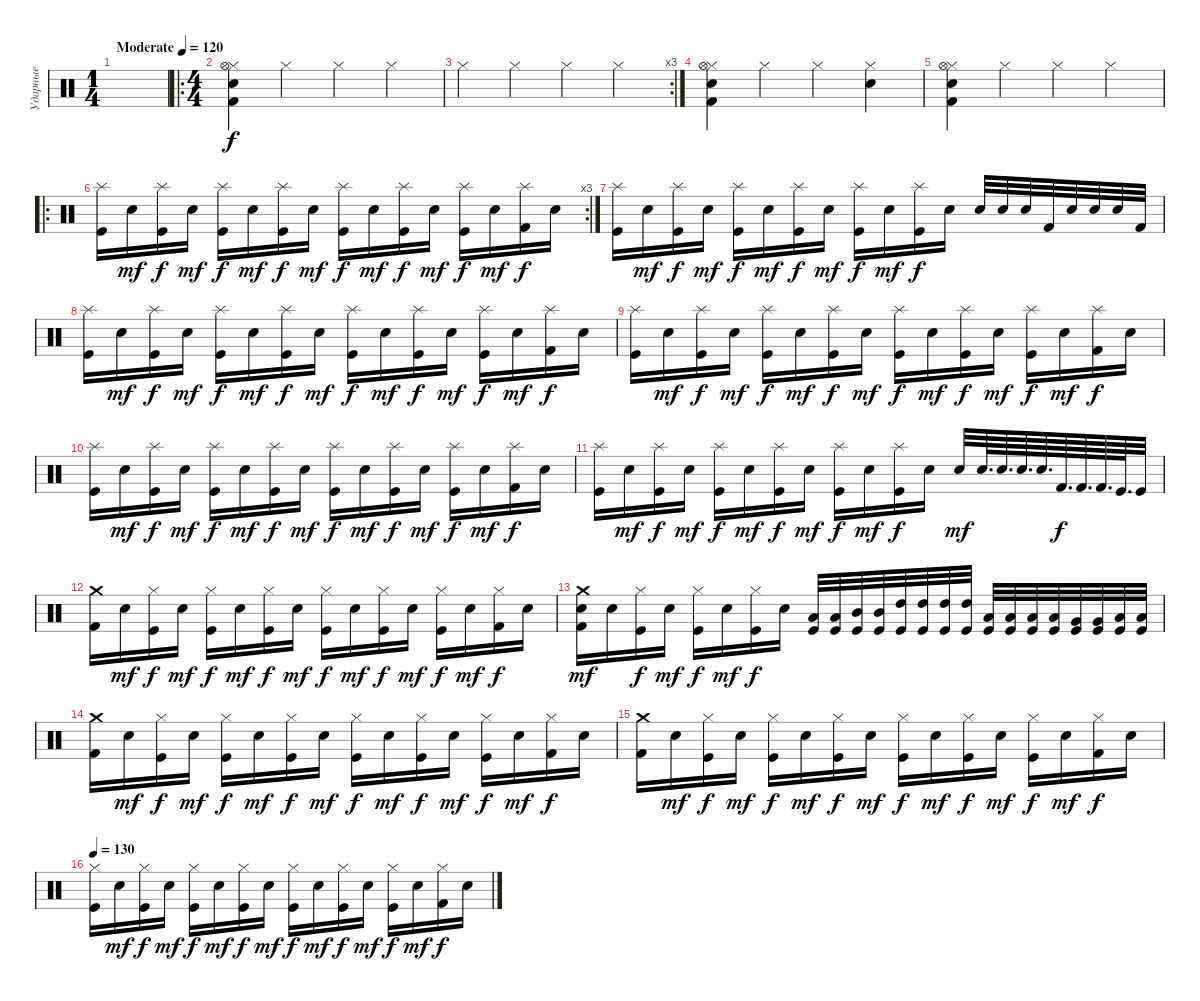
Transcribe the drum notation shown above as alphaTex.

\track ("Ударные" "Ударные") {instrument percussion}
\staff {score}
\articulation defaults
\ts (1 4)
\tempo (120 "Moderate")
\clef neutral
\ks c
|
\ro
\ts (4 4)
("Hi-Hat (closed)" "Hi-Hat (open)" "Electric Snare (hit)" "Kick (hit) 2").4 "Hi-Hat (closed)".4 "Hi-Hat (closed)".4 "Hi-Hat (closed)".4 |
\rc 3 "Hi-Hat (closed)".4 "Hi-Hat (closed)".4 "Hi-Hat (closed)".4 "Hi-Hat (closed)".4
|
("Hi-Hat (closed)" "Hi-Hat (open)" "Electric Snare (hit)" "Kick (hit) 2").4 "Hi-Hat (closed)".4 "Hi-Hat (closed)".4 ("Hi-Hat (closed)" "Electric Snare (hit)").4 |
("Hi-Hat (closed)" "Hi-Hat (open)" "Electric Snare (hit)" "Kick (hit) 2").4 "Hi-Hat (closed)".4 "Hi-Hat (closed)".4 "Hi-Hat (closed)".4 |
\ro
\rc 3
("Splash (hit)" "Kick (hit)").16 "Electric Snare (hit)".16{dy mf} ("Splash (hit)" "Kick (hit)").16{dy f} "Electric Snare (hit)".16{dy mf} ("Splash (hit)" "Kick (hit)").16{dy f} "Electric Snare (hit)".16{dy mf} ("Splash (hit)" "Kick (hit)").16{dy f} "Electric Snare (hit)".16{dy mf} ("Splash (hit)" "Kick (hit)").16{dy f} "Electric Snare (hit)".16{dy mf} ("Splash (hit)" "Kick (hit)").16{dy f} "Electric Snare (hit)".16{dy mf} ("Splash (hit)" "Kick (hit)").16{dy f} "Electric Snare (hit)".16{dy mf} ("Splash (hit)" "Kick (hit) 2").16{dy f} "Electric Snare (hit)".16 |
("Splash (hit)" "Kick (hit)").16 "Electric Snare (hit)".16{dy mf} ("Splash (hit)" "Kick (hit)").16{dy f} "Electric Snare (hit)".16{dy mf} ("Splash (hit)" "Kick (hit)").16{dy f} "Electric Snare (hit)".16{dy mf} ("Splash (hit)" "Kick (hit)").16{dy f} "Electric Snare (hit)".16{dy mf} ("Splash (hit)" "Kick (hit)").16{dy f} "Electric Snare (hit)".16{dy mf} ("Splash (hit)" "Kick (hit)").16{dy f} "Electric Snare (hit)".16 "Electric Snare (hit)".32 "Snare (hit) 2".32 "Snare (hit) 2".32 "Kick (hit) 2".32 "Electric Snare (hit)".32 "Snare (hit) 2".32 "Snare (hit) 2".32 "Kick (hit) 2".32 |
("Splash (hit)" "Kick (hit)").16 "Electric Snare (hit)".16{dy mf} ("Splash (hit)" "Kick (hit)").16{dy f} "Electric Snare (hit)".16{dy mf} ("Splash (hit)" "Kick (hit)").16{dy f} "Electric Snare (hit)".16{dy mf} ("Splash (hit)" "Kick (hit)").16{dy f} "Electric Snare (hit)".16{dy mf} ("Splash (hit)" "Kick (hit)").16{dy f} "Electric Snare (hit)".16{dy mf} ("Splash (hit)" "Kick (hit)").16{dy f} "Electric Snare (hit)".16{dy mf} ("Splash (hit)" "Kick (hit)").16{dy f} "Electric Snare (hit)".16{dy mf} ("Splash (hit)" "Kick (hit) 2").16{dy f} "Electric Snare (hit)".16 |
("Splash (hit)" "Kick (hit)").16 "Electric Snare (hit)".16{dy mf} ("Splash (hit)" "Kick (hit)").16{dy f} "Electric Snare (hit)".16{dy mf} ("Splash (hit)" "Kick (hit)").16{dy f} "Electric Snare (hit)".16{dy mf} ("Splash (hit)" "Kick (hit)").16{dy f} "Electric Snare (hit)".16{dy mf} ("Splash (hit)" "Kick (hit)").16{dy f} "Electric Snare (hit)".16{dy mf} ("Splash (hit)" "Kick (hit)").16{dy f} "Electric Snare (hit)".16{dy mf} ("Splash (hit)" "Kick (hit)").16{dy f} "Electric Snare (hit)".16{dy mf} ("Splash (hit)" "Kick (hit) 2").16{dy f} "Electric Snare (hit)".16 |
("Splash (hit)" "Kick (hit)").16 "Electric Snare (hit)".16{dy mf} ("Splash (hit)" "Kick (hit)").16{dy f} "Electric Snare (hit)".16{dy mf} ("Splash (hit)" "Kick (hit)").16{dy f} "Electric Snare (hit)".16{dy mf} ("Splash (hit)" "Kick (hit)").16{dy f} "Electric Snare (hit)".16{dy mf} ("Splash (hit)" "Kick (hit)").16{dy f} "Electric Snare (hit)".16{dy mf} ("Splash (hit)" "Kick (hit)").16{dy f} "Electric Snare (hit)".16{dy mf} ("Splash (hit)" "Kick (hit)").16{dy f} "Electric Snare (hit)".16{dy mf} ("Splash (hit)" "Kick (hit) 2").16{dy f} "Electric Snare (hit)".16 |
("Splash (hit)" "Kick (hit)").16 "Electric Snare (hit)".16{dy mf} ("Splash (hit)" "Kick (hit)").16{dy f} "Electric Snare (hit)".16{dy mf} ("Splash (hit)" "Kick (hit)").16{dy f} "Electric Snare (hit)".16{dy mf} ("Splash (hit)" "Kick (hit)").16{dy f} "Electric Snare (hit)".16{dy mf} ("Splash (hit)" "Kick (hit)").16{dy f} "Electric Snare (hit)".16{dy mf} ("Splash (hit)" "Kick (hit)").16{dy f} "Electric Snare (hit)".16 "Snare (hit) 2".32{dy mf} "Snare (hit) 2".64{d} "Snare (hit) 2".64{d} "Electric Snare (hit)".64{d} "Electric Snare (hit)".64{d} "Kick (hit) 2".64{d dy f} "Kick (hit) 2".64{d} "Kick (hit) 2".64{d} "Kick (hit)".64{d} "Kick (hit)".32 |
("Crash medium (hit)" "Kick (hit) 2").16 "Electric Snare (hit)".16{dy mf} ("Hi-Hat (closed)" "Kick (hit)").16{dy f} "Electric Snare (hit)".16{dy mf} ("Hi-Hat (closed)" "Kick (hit)").16{dy f} "Electric Snare (hit)".16{dy mf} ("Hi-Hat (closed)" "Kick (hit)").16{dy f} "Electric Snare (hit)".16{dy mf} ("Hi-Hat (closed)" "Kick (hit)").16{dy f} "Electric Snare (hit)".16{dy mf} ("Hi-Hat (closed)" "Kick (hit)").16{dy f} "Electric Snare (hit)".16{dy mf} ("Hi-Hat (closed)" "Kick (hit)").16{dy f} "Electric Snare (hit)".16{dy mf} ("Hi-Hat (closed)" "Kick (hit) 2").16{dy f} "Electric Snare (hit)".16 |
("Crash medium (hit)" "Electric Snare (hit)" "Kick (hit) 2").16{dy mf} "Electric Snare (hit)".16 ("Hi-Hat (closed)" "Kick (hit)").16{dy f} "Electric Snare (hit)".16{dy mf} ("Hi-Hat (closed)" "Kick (hit)").16{dy f} "Electric Snare (hit)".16{dy mf} ("Hi-Hat (closed)" "Kick (hit)").16{dy f} "Electric Snare (hit)".16 ("Kick (hit)" "Low Tom (hit)").32 ("Kick (hit)" "Low Tom (hit)").32 ("Kick (hit)" "Mid Tom (hit)").32 ("Kick (hit)" "Mid Tom (hit)").32 ("Kick (hit)" "High Tom (hit)").32 ("Kick (hit)" "High Tom (hit)").32 ("Kick (hit)" "High Tom (hit)").32 ("Kick (hit)" "High Tom (hit)").32 ("Kick (hit)" "Low Tom (hit)").32 ("Kick (hit)" "Low Tom (hit)").32 ("Kick (hit)" "Low Tom (hit)").32 ("Kick (hit)" "Low Tom (hit)").32 ("Kick (hit)" "Very Low Tom (hit)").32 ("Kick (hit)" "Very Low Tom (hit)").32 ("Kick (hit)" "Low Floor Tom (hit)").32 ("Kick (hit)" "Low Floor Tom (hit)").32 |
("Crash medium (hit)" "Kick (hit) 2").16 "Electric Snare (hit)".16{dy mf} ("Hi-Hat (closed)" "Kick (hit)").16{dy f} "Electric Snare (hit)".16{dy mf} ("Hi-Hat (closed)" "Kick (hit)").16{dy f} "Electric Snare (hit)".16{dy mf} ("Hi-Hat (closed)" "Kick (hit)").16{dy f} "Electric Snare (hit)".16{dy mf} ("Hi-Hat (closed)" "Kick (hit)").16{dy f} "Electric Snare (hit)".16{dy mf} ("Hi-Hat (closed)" "Kick (hit)").16{dy f} "Electric Snare (hit)".16{dy mf} ("Hi-Hat (closed)" "Kick (hit)").16{dy f} "Electric Snare (hit)".16{dy mf} ("Hi-Hat (closed)" "Kick (hit) 2").16{dy f} "Electric Snare (hit)".16 |
("Crash medium (hit)" "Kick (hit) 2").16 "Electric Snare (hit)".16{dy mf} ("Hi-Hat (closed)" "Kick (hit)").16{dy f} "Electric Snare (hit)".16{dy mf} ("Hi-Hat (closed)" "Kick (hit)").16{dy f} "Electric Snare (hit)".16{dy mf} ("Hi-Hat (closed)" "Kick (hit)").16{dy f} "Electric Snare (hit)".16{dy mf} ("Hi-Hat (closed)" "Kick (hit)").16{dy f} "Electric Snare (hit)".16{dy mf} ("Hi-Hat (closed)" "Kick (hit)").16{dy f} "Electric Snare (hit)".16{dy mf} ("Hi-Hat (closed)" "Kick (hit)").16{dy f} "Electric Snare (hit)".16{dy mf} ("Hi-Hat (closed)" "Kick (hit) 2").16{dy f} "Electric Snare (hit)".16 |
\tempo 130
("Hi-Hat (closed)" "Kick (hit)").16 "Electric Snare (hit)".16{dy mf} ("Hi-Hat (closed)" "Kick (hit)").16{dy f} "Electric Snare (hit)".16{dy mf} ("Hi-Hat (closed)" "Kick (hit)").16{dy f} "Electric Snare (hit)".16{dy mf} ("Hi-Hat (closed)" "Kick (hit)").16{dy f} "Electric Snare (hit)".16{dy mf} ("Hi-Hat (closed)" "Kick (hit)").16{dy f} "Electric Snare (hit)".16{dy mf} ("Hi-Hat (closed)" "Kick (hit)").16{dy f} "Electric Snare (hit)".16{dy mf} ("Hi-Hat (closed)" "Kick (hit)").16{dy f} "Electric Snare (hit)".16{dy mf} ("Hi-Hat (closed)" "Kick (hit) 2").16{dy f} "Electric Snare (hit)".16
